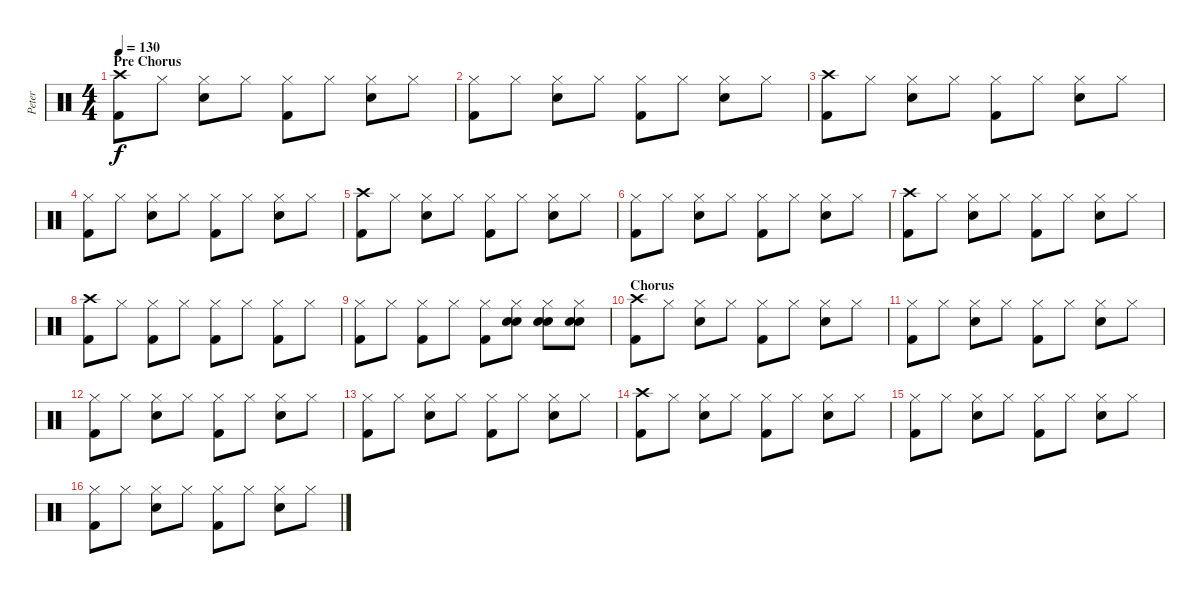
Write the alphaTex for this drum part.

\track ("Peter" "Peter") {instrument percussion}
\staff {score}
\articulation defaults
\ts (4 4)
\section ("" "Pre Chorus")
\tempo 130
\clef neutral
\ks c
("Crash high (hit)" "Kick (hit) 2").8{dy f} "Hi-Hat (closed)".8 ("Hi-Hat (closed)" "Snare (hit) 2").8 "Hi-Hat (closed)".8 ("Hi-Hat (closed)" "Kick (hit) 2").8 "Hi-Hat (closed)".8 ("Hi-Hat (closed)" "Snare (hit) 2").8 "Hi-Hat (closed)".8 |
("Hi-Hat (closed)" "Kick (hit) 2").8 "Hi-Hat (closed)".8 ("Hi-Hat (closed)" "Snare (hit) 2").8 "Hi-Hat (closed)".8 ("Hi-Hat (closed)" "Kick (hit) 2").8 "Hi-Hat (closed)".8 ("Hi-Hat (closed)" "Snare (hit) 2").8 "Hi-Hat (closed)".8 |
("Crash high (hit)" "Kick (hit) 2").8 "Hi-Hat (closed)".8 ("Hi-Hat (closed)" "Snare (hit) 2").8 "Hi-Hat (closed)".8 ("Hi-Hat (closed)" "Kick (hit) 2").8 "Hi-Hat (closed)".8 ("Hi-Hat (closed)" "Snare (hit) 2").8 "Hi-Hat (closed)".8 |
("Hi-Hat (closed)" "Kick (hit) 2").8 "Hi-Hat (closed)".8 ("Hi-Hat (closed)" "Snare (hit) 2").8 "Hi-Hat (closed)".8 ("Hi-Hat (closed)" "Kick (hit) 2").8 "Hi-Hat (closed)".8 ("Hi-Hat (closed)" "Snare (hit) 2").8 "Hi-Hat (closed)".8 |
("Crash high (hit)" "Kick (hit) 2").8 "Hi-Hat (closed)".8 ("Hi-Hat (closed)" "Snare (hit) 2").8 "Hi-Hat (closed)".8 ("Hi-Hat (closed)" "Kick (hit) 2").8 "Hi-Hat (closed)".8 ("Hi-Hat (closed)" "Snare (hit) 2").8 "Hi-Hat (closed)".8 |
("Hi-Hat (closed)" "Kick (hit) 2").8 "Hi-Hat (closed)".8 ("Hi-Hat (closed)" "Snare (hit) 2").8 "Hi-Hat (closed)".8 ("Hi-Hat (closed)" "Kick (hit) 2").8 "Hi-Hat (closed)".8 ("Hi-Hat (closed)" "Snare (hit) 2").8 "Hi-Hat (closed)".8 |
("Crash high (hit)" "Kick (hit) 2").8 "Hi-Hat (closed)".8 ("Hi-Hat (closed)" "Snare (hit) 2").8 "Hi-Hat (closed)".8 ("Hi-Hat (closed)" "Kick (hit) 2").8 "Hi-Hat (closed)".8 ("Hi-Hat (closed)" "Snare (hit) 2").8 "Hi-Hat (closed)".8 |
("Crash high (hit)" "Kick (hit) 2").8 "Hi-Hat (closed)".8 ("Hi-Hat (closed)" "Kick (hit) 2").8 "Hi-Hat (closed)".8 ("Hi-Hat (closed)" "Kick (hit) 2").8 "Hi-Hat (closed)".8 ("Hi-Hat (closed)" "Kick (hit) 2").8 "Hi-Hat (closed)".8 |
("Hi-Hat (closed)" "Kick (hit) 2").8 "Hi-Hat (closed)".8 ("Hi-Hat (closed)" "Kick (hit) 2").8 "Hi-Hat (closed)".8 ("Hi-Hat (closed)" "Kick (hit) 2").8 ("Hi-Hat (closed)" "Electric Snare (hit)" "Electric Snare (hit)").8 ("Hi-Hat (closed)" "Electric Snare (hit)" "Electric Snare (hit)").8 ("Hi-Hat (closed)" "Electric Snare (hit)" "Electric Snare (hit)").8 |
\section ("" "Chorus")
("Crash high (hit)" "Kick (hit) 2").8 "Hi-Hat (closed)".8 ("Hi-Hat (closed)" "Snare (hit) 2").8 "Hi-Hat (closed)".8 ("Hi-Hat (closed)" "Kick (hit) 2").8 "Hi-Hat (closed)".8 ("Hi-Hat (closed)" "Snare (hit) 2").8 "Hi-Hat (closed)".8 |
("Hi-Hat (closed)" "Kick (hit) 2").8 "Hi-Hat (closed)".8 ("Hi-Hat (closed)" "Snare (hit) 2").8 "Hi-Hat (closed)".8 ("Hi-Hat (closed)" "Kick (hit) 2").8 "Hi-Hat (closed)".8 ("Hi-Hat (closed)" "Snare (hit) 2").8 "Hi-Hat (closed)".8 |
("Hi-Hat (closed)" "Kick (hit) 2").8 "Hi-Hat (closed)".8 ("Hi-Hat (closed)" "Snare (hit) 2").8 "Hi-Hat (closed)".8 ("Hi-Hat (closed)" "Kick (hit) 2").8 "Hi-Hat (closed)".8 ("Hi-Hat (closed)" "Snare (hit) 2").8 "Hi-Hat (closed)".8 |
("Hi-Hat (closed)" "Kick (hit) 2").8 "Hi-Hat (closed)".8 ("Hi-Hat (closed)" "Snare (hit) 2").8 "Hi-Hat (closed)".8 ("Hi-Hat (closed)" "Kick (hit) 2").8 "Hi-Hat (closed)".8 ("Hi-Hat (closed)" "Snare (hit) 2").8 "Hi-Hat (closed)".8 |
("Crash high (hit)" "Kick (hit) 2").8 "Hi-Hat (closed)".8 ("Hi-Hat (closed)" "Snare (hit) 2").8 "Hi-Hat (closed)".8 ("Hi-Hat (closed)" "Kick (hit) 2").8 "Hi-Hat (closed)".8 ("Hi-Hat (closed)" "Snare (hit) 2").8 "Hi-Hat (closed)".8 |
("Hi-Hat (closed)" "Kick (hit) 2").8 "Hi-Hat (closed)".8 ("Hi-Hat (closed)" "Snare (hit) 2").8 "Hi-Hat (closed)".8 ("Hi-Hat (closed)" "Kick (hit) 2").8 "Hi-Hat (closed)".8 ("Hi-Hat (closed)" "Snare (hit) 2").8 "Hi-Hat (closed)".8 |
("Hi-Hat (closed)" "Kick (hit) 2").8 "Hi-Hat (closed)".8 ("Hi-Hat (closed)" "Snare (hit) 2").8 "Hi-Hat (closed)".8 ("Hi-Hat (closed)" "Kick (hit) 2").8 "Hi-Hat (closed)".8 ("Hi-Hat (closed)" "Snare (hit) 2").8 "Hi-Hat (closed)".8
